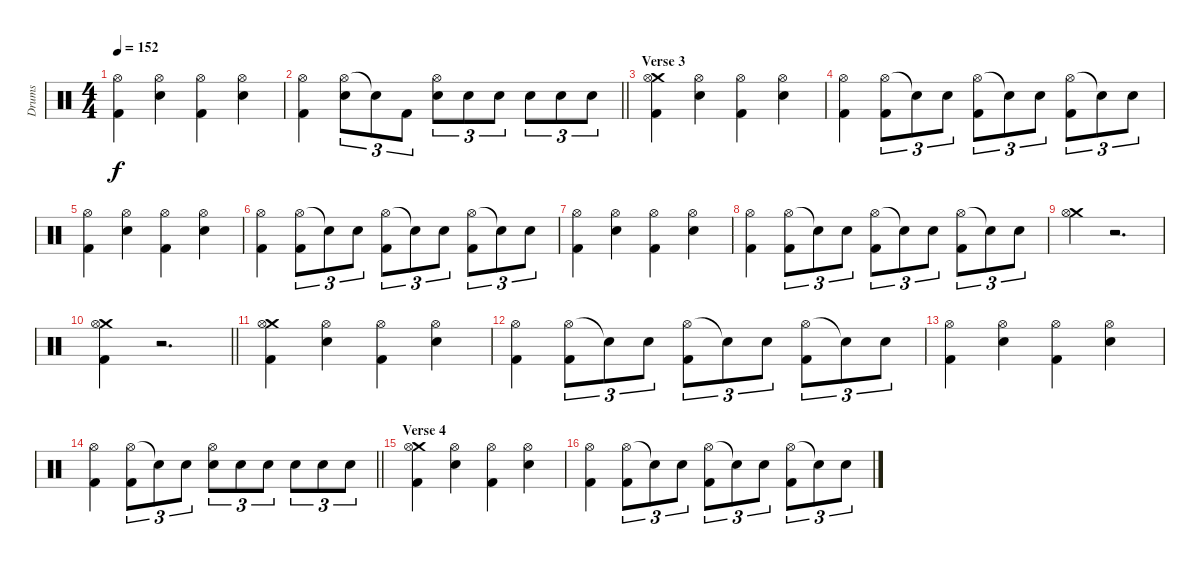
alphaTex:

\track ("Drums" "Drums") {instrument percussion}
\staff {score}
\articulation defaults
\ts (4 4)
\tempo 152
\clef neutral
\ks c
("Hi-Hat (open)" "Kick (hit) 2").4{dy f} ("Hi-Hat (open)" "Snare (hit) 2").4 ("Hi-Hat (open)" "Kick (hit) 2").4 ("Hi-Hat (open)" "Snare (hit) 2").4 |
\barLineRight lightlight
("Hi-Hat (open)" "Kick (hit) 2").4 ("Hi-Hat (open)" "Snare (hit) 2").8{tu (3 2)} "Snare (hit)"{t}.8{tu (3 2)} "Kick (hit) 2".8{tu (3 2)} ("Hi-Hat (open)" "Snare (hit) 2").8{tu (3 2)} "Snare (hit) 2".8{tu (3 2)} "Snare (hit) 2".8{tu (3 2)} "Snare (hit) 2".8{tu (3 2)} "Snare (hit) 2".8{tu (3 2)} "Snare (hit) 2".8{tu (3 2)} |
\section ("" "Verse 3")
("Crash medium (hit)" "Hi-Hat (open)" "Kick (hit) 2").4 ("Hi-Hat (open)" "Snare (hit) 2").4 ("Hi-Hat (open)" "Kick (hit) 2").4 ("Hi-Hat (open)" "Snare (hit) 2").4 |
("Hi-Hat (open)" "Kick (hit) 2").4 ("Hi-Hat (open)" "Kick (hit) 2").8{tu (3 2)} "Snare (hit)"{t}.8{tu (3 2)} "Snare (hit) 2".8{tu (3 2)} ("Hi-Hat (open)" "Kick (hit) 2").8{tu (3 2)} "Snare (hit)"{t}.8{tu (3 2)} "Snare (hit) 2".8{tu (3 2)} ("Hi-Hat (open)" "Kick (hit) 2").8{tu (3 2)} "Snare (hit) 2"{t}.8{tu (3 2)} "Snare (hit) 2".8{tu (3 2)} |
("Hi-Hat (open)" "Kick (hit) 2").4 ("Hi-Hat (open)" "Snare (hit) 2").4 ("Hi-Hat (open)" "Kick (hit) 2").4 ("Hi-Hat (open)" "Snare (hit) 2").4 |
("Hi-Hat (open)" "Kick (hit) 2").4 ("Hi-Hat (open)" "Kick (hit) 2").8{tu (3 2)} "Snare (hit)"{t}.8{tu (3 2)} "Snare (hit) 2".8{tu (3 2)} ("Hi-Hat (open)" "Kick (hit) 2").8{tu (3 2)} "Snare (hit)"{t}.8{tu (3 2)} "Snare (hit) 2".8{tu (3 2)} ("Hi-Hat (open)" "Kick (hit) 2").8{tu (3 2)} "Snare (hit) 2"{t}.8{tu (3 2)} "Snare (hit) 2".8{tu (3 2)} |
("Hi-Hat (open)" "Kick (hit) 2").4 ("Hi-Hat (open)" "Snare (hit) 2").4 ("Hi-Hat (open)" "Kick (hit) 2").4 ("Hi-Hat (open)" "Snare (hit) 2").4 |
("Hi-Hat (open)" "Kick (hit) 2").4 ("Hi-Hat (open)" "Kick (hit) 2").8{tu (3 2)} "Snare (hit)"{t}.8{tu (3 2)} "Snare (hit) 2".8{tu (3 2)} ("Hi-Hat (open)" "Kick (hit) 2").8{tu (3 2)} "Snare (hit)"{t}.8{tu (3 2)} "Snare (hit) 2".8{tu (3 2)} ("Hi-Hat (open)" "Kick (hit) 2").8{tu (3 2)} "Snare (hit) 2"{t}.8{tu (3 2)} "Snare (hit) 2".8{tu (3 2)} |
("Crash medium (hit)" "Hi-Hat (open)").4 r.2{d} |
\barLineRight lightlight
("Crash medium (hit)" "Hi-Hat (open)" "Kick (hit) 2").4 r.2{d} |
("Crash medium (hit)" "Hi-Hat (open)" "Kick (hit) 2").4 ("Hi-Hat (open)" "Snare (hit) 2").4 ("Hi-Hat (open)" "Kick (hit) 2").4 ("Hi-Hat (open)" "Snare (hit) 2").4 |
("Hi-Hat (open)" "Kick (hit) 2").4 ("Hi-Hat (open)" "Kick (hit) 2").8{tu (3 2)} "Snare (hit)"{t}.8{tu (3 2)} "Snare (hit) 2".8{tu (3 2)} ("Hi-Hat (open)" "Kick (hit) 2").8{tu (3 2)} "Snare (hit)"{t}.8{tu (3 2)} "Snare (hit) 2".8{tu (3 2)} ("Hi-Hat (open)" "Kick (hit) 2").8{tu (3 2)} "Snare (hit) 2"{t}.8{tu (3 2)} "Snare (hit) 2".8{tu (3 2)} |
("Hi-Hat (open)" "Kick (hit) 2").4 ("Hi-Hat (open)" "Snare (hit) 2").4 ("Hi-Hat (open)" "Kick (hit) 2").4 ("Hi-Hat (open)" "Snare (hit) 2").4 |
\barLineRight lightlight
("Hi-Hat (open)" "Kick (hit) 2").4 ("Hi-Hat (open)" "Kick (hit) 2").8{tu (3 2)} "Snare (hit)"{t}.8{tu (3 2)} "Snare (hit) 2".8{tu (3 2)} ("Hi-Hat (open)" "Snare (hit) 2").8{tu (3 2)} "Snare (hit) 2".8{tu (3 2)} "Snare (hit) 2".8{tu (3 2)} "Snare (hit) 2".8{tu (3 2)} "Snare (hit) 2".8{tu (3 2)} "Snare (hit) 2".8{tu (3 2)} |
\section ("" "Verse 4")
("Crash medium (hit)" "Hi-Hat (open)" "Kick (hit) 2").4 ("Hi-Hat (open)" "Snare (hit) 2").4 ("Hi-Hat (open)" "Kick (hit) 2").4 ("Hi-Hat (open)" "Snare (hit) 2").4 |
("Hi-Hat (open)" "Kick (hit) 2").4 ("Hi-Hat (open)" "Kick (hit) 2").8{tu (3 2)} "Snare (hit)"{t}.8{tu (3 2)} "Snare (hit) 2".8{tu (3 2)} ("Hi-Hat (open)" "Kick (hit) 2").8{tu (3 2)} "Snare (hit)"{t}.8{tu (3 2)} "Snare (hit) 2".8{tu (3 2)} ("Hi-Hat (open)" "Kick (hit) 2").8{tu (3 2)} "Snare (hit) 2"{t}.8{tu (3 2)} "Snare (hit) 2".8{tu (3 2)}
